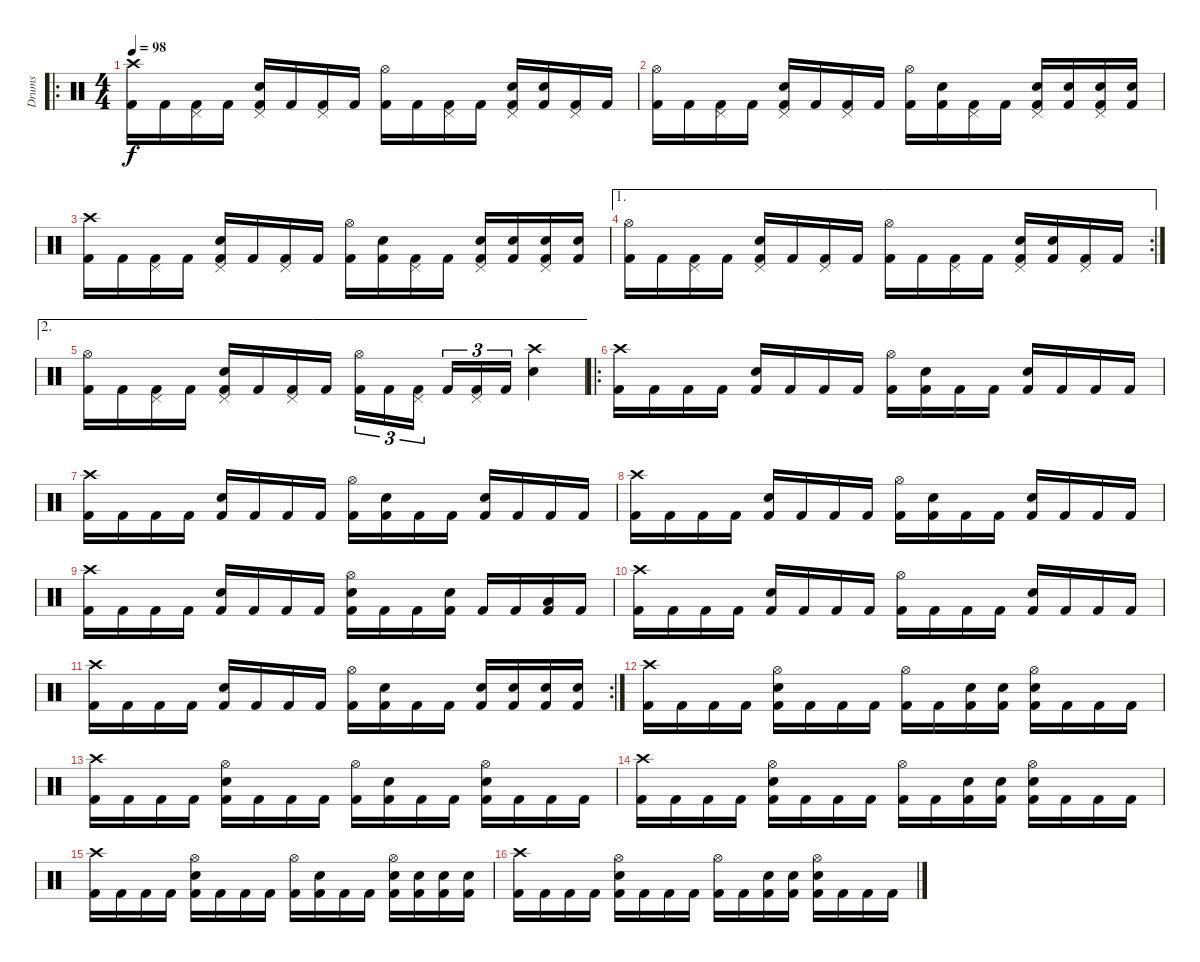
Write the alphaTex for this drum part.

\track ("Drums" "Drums") {instrument percussion}
\staff {score}
\articulation defaults
\ro
\ts (4 4)
\tempo 98
\clef neutral
\ks c
("Crash high (hit)" "Kick (hit) 2").16{dy f} "Kick (hit) 2".16 ("Pedal Hi-Hat (hit)" "Kick (hit) 2").16 "Kick (hit) 2".16 ("Pedal Hi-Hat (hit)" "Electric Snare (hit)" "Kick (hit) 2").16 "Kick (hit) 2".16 ("Pedal Hi-Hat (hit)" "Kick (hit) 2").16 "Kick (hit) 2".16 ("Hi-Hat (open)" "Kick (hit) 2").16 "Kick (hit) 2".16 ("Pedal Hi-Hat (hit)" "Kick (hit) 2").16 "Kick (hit) 2".16 ("Pedal Hi-Hat (hit)" "Electric Snare (hit)" "Kick (hit) 2").16 ("Electric Snare (hit)" "Kick (hit) 2").16 ("Pedal Hi-Hat (hit)" "Kick (hit) 2").16 "Kick (hit) 2".16 |
("Hi-Hat (open)" "Kick (hit) 2").16 "Kick (hit) 2".16 ("Pedal Hi-Hat (hit)" "Kick (hit) 2").16 "Kick (hit) 2".16 ("Pedal Hi-Hat (hit)" "Electric Snare (hit)" "Kick (hit) 2").16 "Kick (hit) 2".16 ("Pedal Hi-Hat (hit)" "Kick (hit) 2").16 "Kick (hit) 2".16 ("Hi-Hat (open)" "Kick (hit) 2").16 ("Electric Snare (hit)" "Kick (hit) 2").16 ("Pedal Hi-Hat (hit)" "Kick (hit) 2").16 "Kick (hit) 2".16 ("Pedal Hi-Hat (hit)" "Electric Snare (hit)" "Kick (hit) 2").16 ("Electric Snare (hit)" "Kick (hit) 2").16 ("Pedal Hi-Hat (hit)" "Electric Snare (hit)" "Kick (hit) 2").16 ("Electric Snare (hit)" "Kick (hit) 2").16 |
("Crash high (hit)" "Kick (hit) 2").16 "Kick (hit) 2".16 ("Pedal Hi-Hat (hit)" "Kick (hit) 2").16 "Kick (hit) 2".16 ("Pedal Hi-Hat (hit)" "Electric Snare (hit)" "Kick (hit) 2").16 "Kick (hit) 2".16 ("Pedal Hi-Hat (hit)" "Kick (hit) 2").16 "Kick (hit) 2".16 ("Hi-Hat (open)" "Kick (hit) 2").16 ("Electric Snare (hit)" "Kick (hit) 2").16 ("Pedal Hi-Hat (hit)" "Kick (hit) 2").16 "Kick (hit) 2".16 ("Pedal Hi-Hat (hit)" "Electric Snare (hit)" "Kick (hit) 2").16 ("Electric Snare (hit)" "Kick (hit) 2").16 ("Pedal Hi-Hat (hit)" "Electric Snare (hit)" "Kick (hit) 2").16 ("Electric Snare (hit)" "Kick (hit) 2").16 |
\ae 1
\rc 2
("Hi-Hat (open)" "Kick (hit) 2").16 "Kick (hit) 2".16 ("Pedal Hi-Hat (hit)" "Kick (hit) 2").16 "Kick (hit) 2".16 ("Pedal Hi-Hat (hit)" "Electric Snare (hit)" "Kick (hit) 2").16 "Kick (hit) 2".16 ("Pedal Hi-Hat (hit)" "Kick (hit) 2").16 "Kick (hit) 2".16 ("Hi-Hat (open)" "Kick (hit) 2").16 "Kick (hit) 2".16 ("Pedal Hi-Hat (hit)" "Kick (hit) 2").16 "Kick (hit) 2".16 ("Pedal Hi-Hat (hit)" "Electric Snare (hit)" "Kick (hit) 2").16 ("Electric Snare (hit)" "Kick (hit) 2").16 ("Pedal Hi-Hat (hit)" "Kick (hit) 2").16 "Kick (hit) 2".16 |
\ae 2
("Hi-Hat (open)" "Kick (hit) 2").16 "Kick (hit) 2".16 ("Pedal Hi-Hat (hit)" "Kick (hit) 2").16 "Kick (hit) 2".16 ("Pedal Hi-Hat (hit)" "Electric Snare (hit)" "Kick (hit) 2").16 "Kick (hit) 2".16 ("Pedal Hi-Hat (hit)" "Kick (hit) 2").16 "Kick (hit) 2".16 ("Hi-Hat (open)" "Kick (hit) 2").16{tu (3 2)} "Kick (hit) 2".16{tu (3 2)} ("Pedal Hi-Hat (hit)" "Kick (hit) 2").16{tu (3 2)} "Kick (hit) 2".16{tu (3 2)} ("Pedal Hi-Hat (hit)" "Kick (hit) 2").16{tu (3 2)} "Kick (hit) 2".16{tu (3 2)} ("Crash high (hit)" "Electric Snare (hit)").4 |
\ro
("Crash high (hit)" "Kick (hit) 2").16 "Kick (hit) 2".16 "Kick (hit) 2".16 "Kick (hit) 2".16 ("Electric Snare (hit)" "Kick (hit) 2").16 "Kick (hit) 2".16 "Kick (hit) 2".16 "Kick (hit) 2".16 ("Hi-Hat (open)" "Kick (hit) 2").16 ("Electric Snare (hit)" "Kick (hit) 2").16 "Kick (hit) 2".16 "Kick (hit) 2".16 ("Electric Snare (hit)" "Kick (hit) 2").16 "Kick (hit) 2".16 "Kick (hit) 2".16 "Kick (hit) 2".16 |
("Crash high (hit)" "Kick (hit) 2").16 "Kick (hit) 2".16 "Kick (hit) 2".16 "Kick (hit) 2".16 ("Electric Snare (hit)" "Kick (hit) 2").16 "Kick (hit) 2".16 "Kick (hit) 2".16 "Kick (hit) 2".16 ("Hi-Hat (open)" "Kick (hit) 2").16 ("Electric Snare (hit)" "Kick (hit) 2").16 "Kick (hit) 2".16 "Kick (hit) 2".16 ("Electric Snare (hit)" "Kick (hit) 2").16 "Kick (hit) 2".16 "Kick (hit) 2".16 "Kick (hit) 2".16 |
("Crash high (hit)" "Kick (hit) 2").16 "Kick (hit) 2".16 "Kick (hit) 2".16 "Kick (hit) 2".16 ("Electric Snare (hit)" "Kick (hit) 2").16 "Kick (hit) 2".16 "Kick (hit) 2".16 "Kick (hit) 2".16 ("Hi-Hat (open)" "Kick (hit) 2").16 ("Electric Snare (hit)" "Kick (hit) 2").16 "Kick (hit) 2".16 "Kick (hit) 2".16 ("Electric Snare (hit)" "Kick (hit) 2").16 "Kick (hit) 2".16 "Kick (hit) 2".16 "Kick (hit) 2".16 |
("Crash high (hit)" "Kick (hit) 2").16 "Kick (hit) 2".16 "Kick (hit) 2".16 "Kick (hit) 2".16 ("Electric Snare (hit)" "Kick (hit) 2").16 "Kick (hit) 2".16 "Kick (hit) 2".16 "Kick (hit) 2".16 ("Hi-Hat (open)" "Electric Snare (hit)" "Kick (hit) 2").16 "Kick (hit) 2".16 "Kick (hit) 2".16 ("Electric Snare (hit)" "Kick (hit) 2").16 "Kick (hit) 2".16 "Kick (hit) 2".16 ("Low Tom (hit)" "Kick (hit) 2").16 "Kick (hit) 2".16 |
("Crash high (hit)" "Kick (hit) 2").16 "Kick (hit) 2".16 "Kick (hit) 2".16 "Kick (hit) 2".16 ("Electric Snare (hit)" "Kick (hit) 2").16 "Kick (hit) 2".16 "Kick (hit) 2".16 "Kick (hit) 2".16 ("Hi-Hat (open)" "Kick (hit) 2").16 "Kick (hit) 2".16 "Kick (hit) 2".16 "Kick (hit) 2".16 ("Electric Snare (hit)" "Kick (hit) 2").16 "Kick (hit) 2".16 "Kick (hit) 2".16 "Kick (hit) 2".16 |
\rc 2
("Crash high (hit)" "Kick (hit) 2").16 "Kick (hit) 2".16 "Kick (hit) 2".16 "Kick (hit) 2".16 ("Electric Snare (hit)" "Kick (hit) 2").16 "Kick (hit) 2".16 "Kick (hit) 2".16 "Kick (hit) 2".16 ("Hi-Hat (open)" "Kick (hit) 2").16 ("Electric Snare (hit)" "Kick (hit) 2").16 "Kick (hit) 2".16 "Kick (hit) 2".16 ("Electric Snare (hit)" "Kick (hit) 2").16 ("Electric Snare (hit)" "Kick (hit) 2").16 ("Electric Snare (hit)" "Kick (hit) 2").16 ("Electric Snare (hit)" "Kick (hit) 2").16 |
("Crash high (hit)" "Kick (hit) 2").16 "Kick (hit) 2".16 "Kick (hit) 2".16 "Kick (hit) 2".16 ("Hi-Hat (open)" "Electric Snare (hit)" "Kick (hit) 2").16 "Kick (hit) 2".16 "Kick (hit) 2".16 "Kick (hit) 2".16 ("Hi-Hat (open)" "Kick (hit) 2").16 "Kick (hit) 2".16 ("Electric Snare (hit)" "Kick (hit) 2").16 ("Electric Snare (hit)" "Kick (hit) 2").16 ("Hi-Hat (open)" "Electric Snare (hit)" "Kick (hit) 2").16 "Kick (hit) 2".16 "Kick (hit) 2".16 "Kick (hit) 2".16 |
("Crash high (hit)" "Kick (hit) 2").16 "Kick (hit) 2".16 "Kick (hit) 2".16 "Kick (hit) 2".16 ("Hi-Hat (open)" "Electric Snare (hit)" "Kick (hit) 2").16 "Kick (hit) 2".16 "Kick (hit) 2".16 "Kick (hit) 2".16 ("Hi-Hat (open)" "Kick (hit) 2").16 ("Electric Snare (hit)" "Kick (hit) 2").16 "Kick (hit) 2".16 "Kick (hit) 2".16 ("Hi-Hat (open)" "Electric Snare (hit)" "Kick (hit) 2").16 "Kick (hit) 2".16 "Kick (hit) 2".16 "Kick (hit) 2".16 |
("Crash high (hit)" "Kick (hit) 2").16 "Kick (hit) 2".16 "Kick (hit) 2".16 "Kick (hit) 2".16 ("Hi-Hat (open)" "Electric Snare (hit)" "Kick (hit) 2").16 "Kick (hit) 2".16 "Kick (hit) 2".16 "Kick (hit) 2".16 ("Hi-Hat (open)" "Kick (hit) 2").16 "Kick (hit) 2".16 ("Electric Snare (hit)" "Kick (hit) 2").16 ("Electric Snare (hit)" "Kick (hit) 2").16 ("Hi-Hat (open)" "Electric Snare (hit)" "Kick (hit) 2").16 "Kick (hit) 2".16 "Kick (hit) 2".16 "Kick (hit) 2".16 |
("Crash high (hit)" "Kick (hit) 2").16 "Kick (hit) 2".16 "Kick (hit) 2".16 "Kick (hit) 2".16 ("Hi-Hat (open)" "Electric Snare (hit)" "Kick (hit) 2").16 "Kick (hit) 2".16 "Kick (hit) 2".16 "Kick (hit) 2".16 ("Hi-Hat (open)" "Kick (hit) 2").16 ("Electric Snare (hit)" "Kick (hit) 2").16 "Kick (hit) 2".16 "Kick (hit) 2".16 ("Hi-Hat (open)" "Electric Snare (hit)" "Kick (hit) 2").16 ("Electric Snare (hit)" "Kick (hit) 2").16 ("Electric Snare (hit)" "Kick (hit) 2").16 ("Electric Snare (hit)" "Kick (hit) 2").16 |
("Crash high (hit)" "Kick (hit) 2").16 "Kick (hit) 2".16 "Kick (hit) 2".16 "Kick (hit) 2".16 ("Hi-Hat (open)" "Electric Snare (hit)" "Kick (hit) 2").16 "Kick (hit) 2".16 "Kick (hit) 2".16 "Kick (hit) 2".16 ("Hi-Hat (open)" "Kick (hit) 2").16 "Kick (hit) 2".16 ("Electric Snare (hit)" "Kick (hit) 2").16 ("Electric Snare (hit)" "Kick (hit) 2").16 ("Hi-Hat (open)" "Electric Snare (hit)" "Kick (hit) 2").16 "Kick (hit) 2".16 "Kick (hit) 2".16 "Kick (hit) 2".16
